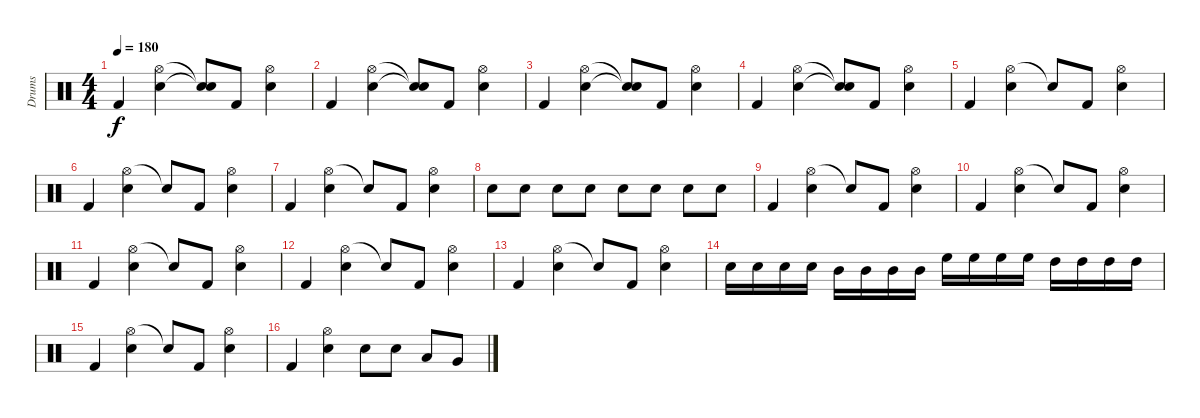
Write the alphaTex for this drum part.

\track ("Drums" "Drums") {instrument percussion}
\staff {score}
\articulation defaults
\ts (4 4)
\tempo 180
\clef neutral
\ks c "Kick (hit) 2".4{dy f}
("Hi-Hat (open)" "Electric Snare (hit)").4 ("Snare (hit)"{t} "Snare (hit)"{t}).8 "Kick (hit) 2".8 ("Hi-Hat (open)" "Electric Snare (hit)").4 |
"Kick (hit) 2".4 ("Hi-Hat (open)" "Electric Snare (hit)").4 ("Snare (hit)"{t} "Snare (hit)"{t}).8 "Kick (hit) 2".8 ("Hi-Hat (open)" "Electric Snare (hit)").4 |
"Kick (hit) 2".4 ("Hi-Hat (open)" "Electric Snare (hit)").4 ("Snare (hit)"{t} "Snare (hit)"{t}).8 "Kick (hit) 2".8 ("Hi-Hat (open)" "Electric Snare (hit)").4 |
"Kick (hit) 2".4 ("Hi-Hat (open)" "Electric Snare (hit)").4 ("Snare (hit)"{t} "Snare (hit)"{t}).8 "Kick (hit) 2".8 ("Hi-Hat (open)" "Electric Snare (hit)").4 |
"Kick (hit) 2".4 ("Hi-Hat (open)" "Electric Snare (hit)").4 "Snare (hit)"{t}.8 "Kick (hit) 2".8 ("Hi-Hat (open)" "Electric Snare (hit)").4 |
"Kick (hit) 2".4 ("Hi-Hat (open)" "Electric Snare (hit)").4 "Snare (hit)"{t}.8 "Kick (hit) 2".8 ("Hi-Hat (open)" "Electric Snare (hit)").4 |
"Kick (hit) 2".4 ("Hi-Hat (open)" "Electric Snare (hit)").4 "Snare (hit)"{t}.8 "Kick (hit) 2".8 ("Hi-Hat (open)" "Electric Snare (hit)").4 |
"Electric Snare (hit)".8 "Electric Snare (hit)".8 "Electric Snare (hit)".8 "Electric Snare (hit)".8 "Electric Snare (hit)".8 "Electric Snare (hit)".8 "Electric Snare (hit)".8 "Electric Snare (hit)".8 |
"Kick (hit) 2".4 ("Hi-Hat (open)" "Electric Snare (hit)").4 "Snare (hit)"{t}.8 "Kick (hit) 2".8 ("Hi-Hat (open)" "Electric Snare (hit)").4 |
"Kick (hit) 2".4 ("Hi-Hat (open)" "Electric Snare (hit)").4 "Snare (hit)"{t}.8 "Kick (hit) 2".8 ("Hi-Hat (open)" "Electric Snare (hit)").4 |
"Kick (hit) 2".4 ("Hi-Hat (open)" "Electric Snare (hit)").4 "Snare (hit)"{t}.8 "Kick (hit) 2".8 ("Hi-Hat (open)" "Electric Snare (hit)").4 |
"Kick (hit) 2".4 ("Hi-Hat (open)" "Electric Snare (hit)").4 "Snare (hit)"{t}.8 "Kick (hit) 2".8 ("Hi-Hat (open)" "Electric Snare (hit)").4 |
"Kick (hit) 2".4 ("Hi-Hat (open)" "Electric Snare (hit)").4 "Snare (hit)"{t}.8 "Kick (hit) 2".8 ("Hi-Hat (open)" "Electric Snare (hit)").4 |
"Electric Snare (hit)".16 "Electric Snare (hit)".16 "Electric Snare (hit)".16 "Electric Snare (hit)".16 "Mid Tom (hit)".16 "Mid Tom (hit)".16 "Mid Tom (hit)".16 "Mid Tom (hit)".16 "High Floor Tom (hit)".16 "High Floor Tom (hit)".16 "High Floor Tom (hit)".16 "High Floor Tom (hit)".16 "High Tom (hit)".16 "High Tom (hit)".16 "High Tom (hit)".16 "High Tom (hit)".16 |
"Kick (hit) 2".4 ("Hi-Hat (open)" "Electric Snare (hit)").4 "Snare (hit)"{t}.8 "Kick (hit) 2".8 ("Hi-Hat (open)" "Electric Snare (hit)").4 |
"Kick (hit) 2".4 ("Hi-Hat (open)" "Electric Snare (hit)").4 "Electric Snare (hit)".8 "Electric Snare (hit)".8 "Low Tom (hit)".8 "Very Low Tom (hit)".8
